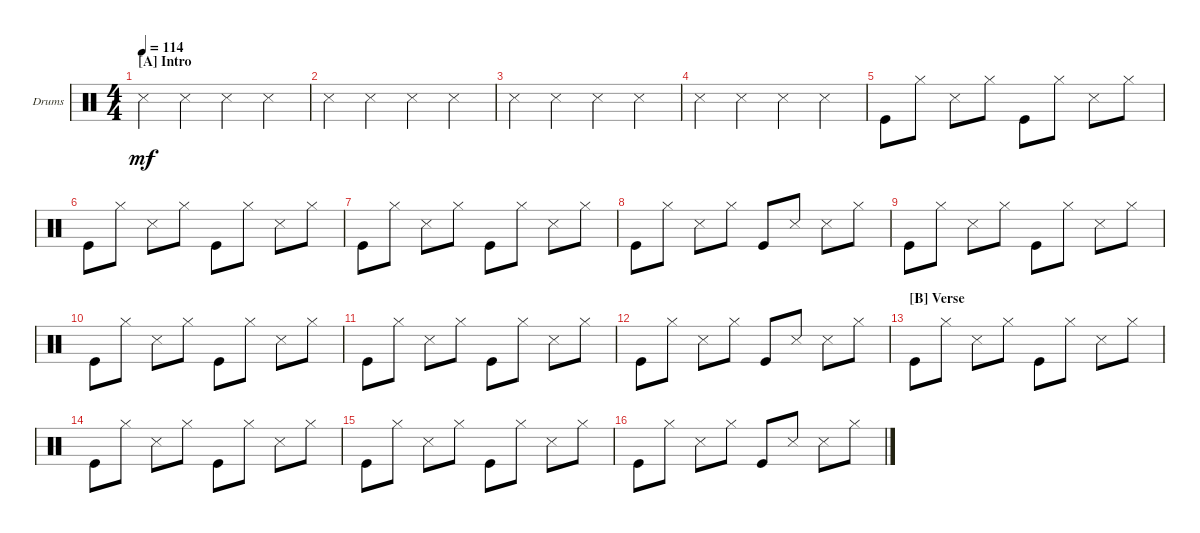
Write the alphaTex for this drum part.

\defaultSystemsLayout 4
\bracketExtendMode groupsimilarinstruments
\firstSystemTrackNameOrientation horizontal
\otherSystemsTrackNameOrientation horizontal
\track ("Drumkit" "Drums") {instrument percussion}
\staff {score}
\articulation defaults
\ts (4 4)
\section ("A" "Intro")
\tempo 114
\clef neutral
\scale
0.472222
\ks c "Snare (side stick) 3".4{dy mf} "Snare (side stick) 3".4 "Snare (side stick) 3".4 "Snare (side stick) 3".4
|
\scale
0.263889 "Snare (side stick) 3".4 "Snare (side stick) 3".4 "Snare (side stick) 3".4 "Snare (side stick) 3".4 |
\scale
0.263889 "Snare (side stick) 3".4 "Snare (side stick) 3".4 "Snare (side stick) 3".4 "Snare (side stick) 3".4 |
\scale
0.333333 "Snare (side stick) 3".4 "Snare (side stick) 3".4 "Snare (side stick) 3".4 "Snare (side stick) 3".4 |
\scale
0.333333 "Kick (hit)".8 "Hi-Hat (closed)".8 "Snare (side stick) 3".8 "Hi-Hat (closed)".8 "Kick (hit)".8 "Hi-Hat (closed)".8 "Snare (side stick) 3".8 "Hi-Hat (closed)".8 |
\scale
0.333333 "Kick (hit)".8 "Hi-Hat (closed)".8 "Snare (side stick) 3".8 "Hi-Hat (closed)".8 "Kick (hit)".8 "Hi-Hat (closed)".8 "Snare (side stick) 3".8 "Hi-Hat (closed)".8 |
\scale
0.333333 "Kick (hit)".8 "Hi-Hat (closed)".8 "Snare (side stick) 3".8 "Hi-Hat (closed)".8 "Kick (hit)".8 "Hi-Hat (closed)".8 "Snare (side stick) 3".8 "Hi-Hat (closed)".8 |
\scale
0.333333 "Kick (hit)".8 "Hi-Hat (closed)".8 "Snare (side stick) 3".8 "Hi-Hat (closed)".8 "Kick (hit)".8 "Snare (side stick) 3".8 "Snare (side stick) 3".8 "Hi-Hat (closed)".8 |
\scale
0.333333 "Kick (hit)".8 "Hi-Hat (closed)".8 "Snare (side stick) 3".8 "Hi-Hat (closed)".8 "Kick (hit)".8 "Hi-Hat (closed)".8 "Snare (side stick) 3".8 "Hi-Hat (closed)".8 |
\scale
0.333333 "Kick (hit)".8 "Hi-Hat (closed)".8 "Snare (side stick) 3".8 "Hi-Hat (closed)".8 "Kick (hit)".8 "Hi-Hat (closed)".8 "Snare (side stick) 3".8 "Hi-Hat (closed)".8 |
\scale
0.333333 "Kick (hit)".8 "Hi-Hat (closed)".8 "Snare (side stick) 3".8 "Hi-Hat (closed)".8 "Kick (hit)".8 "Hi-Hat (closed)".8 "Snare (side stick) 3".8 "Hi-Hat (closed)".8 |
\scale
0.333333 "Kick (hit)".8 "Hi-Hat (closed)".8 "Snare (side stick) 3".8 "Hi-Hat (closed)".8 "Kick (hit)".8 "Snare (side stick) 3".8 "Snare (side stick) 3".8 "Hi-Hat (closed)".8 |
\section ("B" "Verse")
\scale
0.333333 "Kick (hit)".8 "Hi-Hat (closed)".8 "Snare (side stick) 3".8 "Hi-Hat (closed)".8 "Kick (hit)".8 "Hi-Hat (closed)".8 "Snare (side stick) 3".8 "Hi-Hat (closed)".8 |
\scale
0.333333 "Kick (hit)".8 "Hi-Hat (closed)".8 "Snare (side stick) 3".8 "Hi-Hat (closed)".8 "Kick (hit)".8 "Hi-Hat (closed)".8 "Snare (side stick) 3".8 "Hi-Hat (closed)".8 |
\scale
0.333333 "Kick (hit)".8 "Hi-Hat (closed)".8 "Snare (side stick) 3".8 "Hi-Hat (closed)".8 "Kick (hit)".8 "Hi-Hat (closed)".8 "Snare (side stick) 3".8 "Hi-Hat (closed)".8 |
\scale
0.333333 "Kick (hit)".8 "Hi-Hat (closed)".8 "Snare (side stick) 3".8 "Hi-Hat (closed)".8 "Kick (hit)".8 "Snare (side stick) 3".8 "Snare (side stick) 3".8 "Hi-Hat (closed)".8
